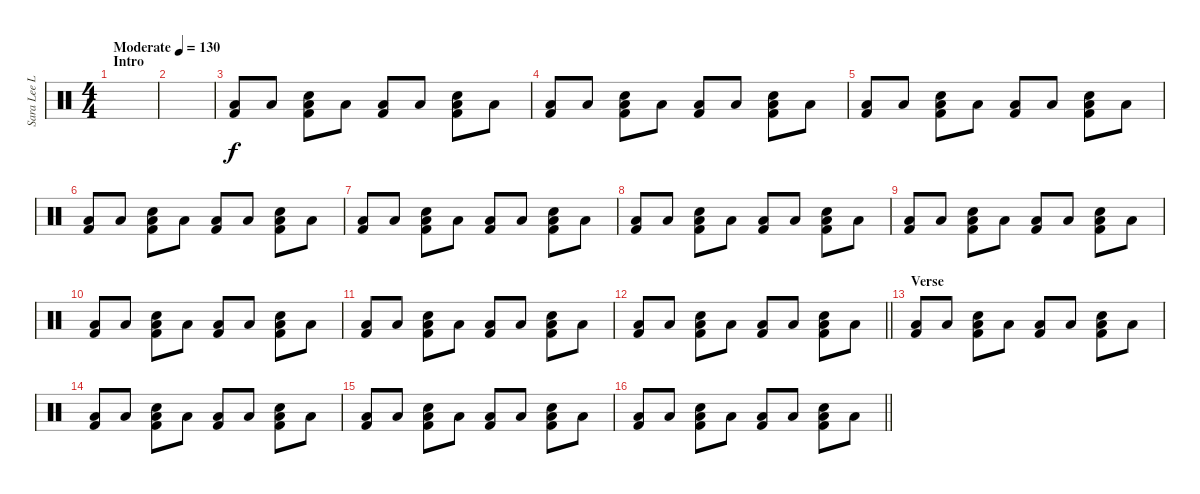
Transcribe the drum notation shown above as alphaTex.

\track ("Sara Lee Lucas" "Sara Lee L") {instrument percussion}
\staff {score}
\articulation defaults
\ts (4 4)
\section ("" "Intro")
\tempo (130 "Moderate")
\clef neutral
\ks c
|
|
("Low Tom (hit)" "Kick (hit) 2").8 "Low Tom (hit)".8 ("Low Tom (hit)" "Snare (hit) 2" "Kick (hit) 2").8 "Low Tom (hit)".8 ("Low Tom (hit)" "Kick (hit) 2").8 "Low Tom (hit)".8 ("Low Tom (hit)" "Snare (hit) 2" "Kick (hit) 2").8 "Low Tom (hit)".8 |
("Low Tom (hit)" "Kick (hit) 2").8 "Low Tom (hit)".8 ("Low Tom (hit)" "Snare (hit) 2" "Kick (hit) 2").8 "Low Tom (hit)".8 ("Low Tom (hit)" "Kick (hit) 2").8 "Low Tom (hit)".8 ("Low Tom (hit)" "Snare (hit) 2" "Kick (hit) 2").8 "Low Tom (hit)".8 |
("Low Tom (hit)" "Kick (hit) 2").8 "Low Tom (hit)".8 ("Low Tom (hit)" "Snare (hit) 2" "Kick (hit) 2").8 "Low Tom (hit)".8 ("Low Tom (hit)" "Kick (hit) 2").8 "Low Tom (hit)".8 ("Low Tom (hit)" "Snare (hit) 2" "Kick (hit) 2").8 "Low Tom (hit)".8 |
("Low Tom (hit)" "Kick (hit) 2").8 "Low Tom (hit)".8 ("Low Tom (hit)" "Snare (hit) 2" "Kick (hit) 2").8 "Low Tom (hit)".8 ("Low Tom (hit)" "Kick (hit) 2").8 "Low Tom (hit)".8 ("Low Tom (hit)" "Snare (hit) 2" "Kick (hit) 2").8 "Low Tom (hit)".8 |
("Low Tom (hit)" "Kick (hit) 2").8 "Low Tom (hit)".8 ("Low Tom (hit)" "Snare (hit) 2" "Kick (hit) 2").8 "Low Tom (hit)".8 ("Low Tom (hit)" "Kick (hit) 2").8 "Low Tom (hit)".8 ("Low Tom (hit)" "Snare (hit) 2" "Kick (hit) 2").8 "Low Tom (hit)".8 |
("Low Tom (hit)" "Kick (hit) 2").8 "Low Tom (hit)".8 ("Low Tom (hit)" "Snare (hit) 2" "Kick (hit) 2").8 "Low Tom (hit)".8 ("Low Tom (hit)" "Kick (hit) 2").8 "Low Tom (hit)".8 ("Low Tom (hit)" "Snare (hit) 2" "Kick (hit) 2").8 "Low Tom (hit)".8 |
("Low Tom (hit)" "Kick (hit) 2").8 "Low Tom (hit)".8 ("Low Tom (hit)" "Snare (hit) 2" "Kick (hit) 2").8 "Low Tom (hit)".8 ("Low Tom (hit)" "Kick (hit) 2").8 "Low Tom (hit)".8 ("Low Tom (hit)" "Snare (hit) 2" "Kick (hit) 2").8 "Low Tom (hit)".8 |
("Low Tom (hit)" "Kick (hit) 2").8 "Low Tom (hit)".8 ("Low Tom (hit)" "Snare (hit) 2" "Kick (hit) 2").8 "Low Tom (hit)".8 ("Low Tom (hit)" "Kick (hit) 2").8 "Low Tom (hit)".8 ("Low Tom (hit)" "Snare (hit) 2" "Kick (hit) 2").8 "Low Tom (hit)".8 |
("Low Tom (hit)" "Kick (hit) 2").8 "Low Tom (hit)".8 ("Low Tom (hit)" "Snare (hit) 2" "Kick (hit) 2").8 "Low Tom (hit)".8 ("Low Tom (hit)" "Kick (hit) 2").8 "Low Tom (hit)".8 ("Low Tom (hit)" "Snare (hit) 2" "Kick (hit) 2").8 "Low Tom (hit)".8 |
\barLineRight lightlight
("Low Tom (hit)" "Kick (hit) 2").8 "Low Tom (hit)".8 ("Low Tom (hit)" "Snare (hit) 2" "Kick (hit) 2").8 "Low Tom (hit)".8 ("Low Tom (hit)" "Kick (hit) 2").8 "Low Tom (hit)".8 ("Low Tom (hit)" "Snare (hit) 2" "Kick (hit) 2").8 "Low Tom (hit)".8 |
\section ("" "Verse")
("Low Tom (hit)" "Kick (hit) 2").8 "Low Tom (hit)".8 ("Low Tom (hit)" "Snare (hit) 2" "Kick (hit) 2").8 "Low Tom (hit)".8 ("Low Tom (hit)" "Kick (hit) 2").8 "Low Tom (hit)".8 ("Low Tom (hit)" "Snare (hit) 2" "Kick (hit) 2").8 "Low Tom (hit)".8 |
("Low Tom (hit)" "Kick (hit) 2").8 "Low Tom (hit)".8 ("Low Tom (hit)" "Snare (hit) 2" "Kick (hit) 2").8 "Low Tom (hit)".8 ("Low Tom (hit)" "Kick (hit) 2").8 "Low Tom (hit)".8 ("Low Tom (hit)" "Snare (hit) 2" "Kick (hit) 2").8 "Low Tom (hit)".8 |
("Low Tom (hit)" "Kick (hit) 2").8 "Low Tom (hit)".8 ("Low Tom (hit)" "Snare (hit) 2" "Kick (hit) 2").8 "Low Tom (hit)".8 ("Low Tom (hit)" "Kick (hit) 2").8 "Low Tom (hit)".8 ("Low Tom (hit)" "Snare (hit) 2" "Kick (hit) 2").8 "Low Tom (hit)".8 |
\barLineRight lightlight
("Low Tom (hit)" "Kick (hit) 2").8 "Low Tom (hit)".8 ("Low Tom (hit)" "Snare (hit) 2" "Kick (hit) 2").8 "Low Tom (hit)".8 ("Low Tom (hit)" "Kick (hit) 2").8 "Low Tom (hit)".8 ("Low Tom (hit)" "Snare (hit) 2" "Kick (hit) 2").8 "Low Tom (hit)".8
